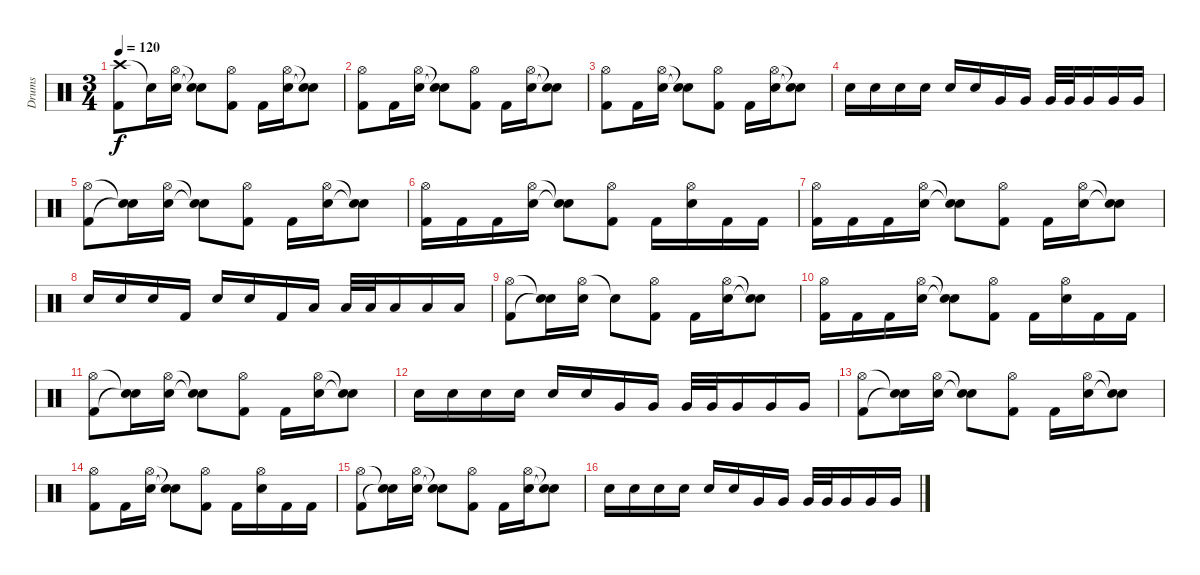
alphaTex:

\track ("Drums" "Drums") {instrument percussion}
\staff {score}
\articulation defaults
\ts (3 4)
\tempo 120
\clef neutral
\ks c
("Crash high (hit)" "Kick (hit) 2").8{dy f} "Snare (hit)"{t}.16 ("Hi-Hat (open)" "Electric Snare (hit)").16 ("Snare (hit)"{t} "Snare (hit)"{t}).8 ("Hi-Hat (open)" "Kick (hit) 2").8 "Kick (hit) 2".16 ("Hi-Hat (open)" "Electric Snare (hit)").16 ("Snare (hit)"{t} "Snare (hit)"{t}).8 |
("Hi-Hat (open)" "Kick (hit) 2").8 "Kick (hit) 2".16 ("Hi-Hat (open)" "Electric Snare (hit)").16 ("Snare (hit)"{t} "Snare (hit)"{t}).8 ("Hi-Hat (open)" "Kick (hit) 2").8 "Kick (hit) 2".16 ("Hi-Hat (open)" "Electric Snare (hit)").16 ("Snare (hit)"{t} "Snare (hit)"{t}).8 |
("Hi-Hat (open)" "Kick (hit) 2").8 "Kick (hit) 2".16 ("Hi-Hat (open)" "Electric Snare (hit)").16 ("Snare (hit)"{t} "Snare (hit)"{t}).8 ("Hi-Hat (open)" "Kick (hit) 2").8 "Kick (hit) 2".16 ("Hi-Hat (open)" "Electric Snare (hit)").16 ("Snare (hit)"{t} "Snare (hit)"{t}).8 |
"Electric Snare (hit)".16 "Electric Snare (hit)".16 "Electric Snare (hit)".16 "Electric Snare (hit)".16 "Electric Snare (hit)".16 "Electric Snare (hit)".16 "Very Low Tom (hit)".16 "Very Low Tom (hit)".16 "Very Low Tom (hit)".32 "Very Low Tom (hit)".32 "Very Low Tom (hit)".16 "Very Low Tom (hit)".16 "Very Low Tom (hit)".16 |
("Hi-Hat (open)" "Kick (hit) 2").8 ("Snare (hit)"{t} "Snare (hit)"{t}).16 ("Hi-Hat (open)" "Electric Snare (hit)").16 ("Snare (hit)"{t} "Snare (hit)"{t}).8 ("Hi-Hat (open)" "Kick (hit) 2").8 "Kick (hit) 2".16 ("Hi-Hat (open)" "Electric Snare (hit)").16 ("Snare (hit)"{t} "Snare (hit)"{t}).8 |
("Hi-Hat (open)" "Kick (hit) 2").16 "Kick (hit) 2".16 "Kick (hit) 2".16 ("Hi-Hat (open)" "Electric Snare (hit)").16 ("Snare (hit)"{t} "Snare (hit)"{t}).8 ("Hi-Hat (open)" "Kick (hit) 2").8 "Kick (hit) 2".16 ("Hi-Hat (open)" "Electric Snare (hit)").16 "Kick (hit) 2".16 "Kick (hit) 2".16 |
("Hi-Hat (open)" "Kick (hit) 2").16 "Kick (hit) 2".16 "Kick (hit) 2".16 ("Hi-Hat (open)" "Electric Snare (hit)").16 ("Snare (hit)"{t} "Snare (hit)"{t}).8 ("Hi-Hat (open)" "Kick (hit) 2").8 "Kick (hit) 2".16 ("Hi-Hat (open)" "Electric Snare (hit)").16 ("Snare (hit)"{t} "Snare (hit)"{t}).8 |
"Electric Snare (hit)".16 "Electric Snare (hit)".16 "Electric Snare (hit)".16 "Kick (hit) 2".16 "Electric Snare (hit)".16 "Electric Snare (hit)".16 "Kick (hit) 2".16 "Low Tom (hit)".16 "Low Tom (hit)".32 "Low Tom (hit)".32 "Low Tom (hit)".16 "Low Tom (hit)".16 "Low Tom (hit)".16 |
("Hi-Hat (open)" "Kick (hit) 2").8 ("Snare (hit)"{t} "Snare (hit)"{t}).16 ("Hi-Hat (open)" "Electric Snare (hit)").16 "Snare (hit)"{t}.8 ("Hi-Hat (open)" "Kick (hit) 2").8 "Kick (hit) 2".16 ("Hi-Hat (open)" "Electric Snare (hit)").16 ("Snare (hit)"{t} "Snare (hit)"{t}).8 |
("Hi-Hat (open)" "Kick (hit) 2").16 "Kick (hit) 2".16 "Kick (hit) 2".16 ("Hi-Hat (open)" "Electric Snare (hit)").16 ("Snare (hit)"{t} "Snare (hit)"{t}).8 ("Hi-Hat (open)" "Kick (hit) 2").8 "Kick (hit) 2".16 ("Hi-Hat (open)" "Electric Snare (hit)").16 "Kick (hit) 2".16 "Kick (hit) 2".16 |
("Hi-Hat (open)" "Kick (hit) 2").8 ("Snare (hit)"{t} "Snare (hit)"{t}).16 ("Hi-Hat (open)" "Electric Snare (hit)").16 ("Snare (hit)"{t} "Snare (hit)"{t}).8 ("Hi-Hat (open)" "Kick (hit) 2").8 "Kick (hit) 2".16 ("Hi-Hat (open)" "Electric Snare (hit)").16 ("Snare (hit)"{t} "Snare (hit)"{t}).8 |
"Electric Snare (hit)".16 "Electric Snare (hit)".16 "Electric Snare (hit)".16 "Electric Snare (hit)".16 "Electric Snare (hit)".16 "Electric Snare (hit)".16 "Very Low Tom (hit)".16 "Very Low Tom (hit)".16 "Very Low Tom (hit)".32 "Very Low Tom (hit)".32 "Very Low Tom (hit)".16 "Very Low Tom (hit)".16 "Very Low Tom (hit)".16 |
("Hi-Hat (open)" "Kick (hit) 2").8 ("Snare (hit)"{t} "Snare (hit)"{t}).16 ("Hi-Hat (open)" "Electric Snare (hit)").16 ("Snare (hit)"{t} "Snare (hit)"{t}).8 ("Hi-Hat (open)" "Kick (hit) 2").8 "Kick (hit) 2".16 ("Hi-Hat (open)" "Electric Snare (hit)").16 ("Snare (hit)"{t} "Snare (hit)"{t}).8 |
("Hi-Hat (open)" "Kick (hit) 2").8 "Kick (hit) 2".16 ("Hi-Hat (open)" "Electric Snare (hit)").16 ("Snare (hit)"{t} "Snare (hit)"{t}).8 ("Hi-Hat (open)" "Kick (hit) 2").8 "Kick (hit) 2".16 ("Hi-Hat (open)" "Electric Snare (hit)").16 "Kick (hit) 2".16 "Kick (hit) 2".16 |
("Hi-Hat (open)" "Kick (hit) 2").8 ("Snare (hit)"{t} "Snare (hit)"{t}).16 ("Hi-Hat (open)" "Electric Snare (hit)").16 ("Snare (hit)"{t} "Snare (hit)"{t}).8 ("Hi-Hat (open)" "Kick (hit) 2").8 "Kick (hit) 2".16 ("Hi-Hat (open)" "Electric Snare (hit)").16 ("Snare (hit)"{t} "Snare (hit)"{t}).8 |
"Electric Snare (hit)".16 "Electric Snare (hit)".16 "Electric Snare (hit)".16 "Electric Snare (hit)".16 "Electric Snare (hit)".16 "Electric Snare (hit)".16 "Very Low Tom (hit)".16 "Very Low Tom (hit)".16 "Very Low Tom (hit)".32 "Very Low Tom (hit)".32 "Very Low Tom (hit)".16 "Very Low Tom (hit)".16 "Very Low Tom (hit)".16
